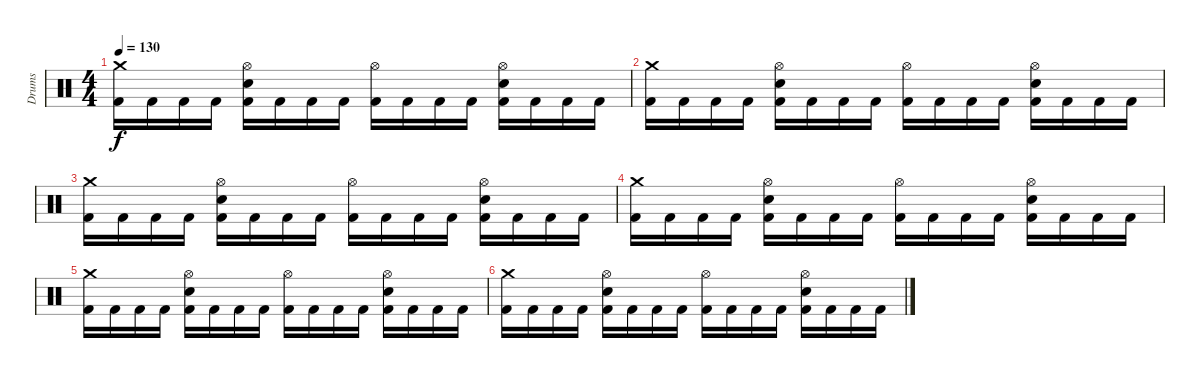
\track ("Drums" "Drums") {instrument percussion}
\staff {score}
\articulation defaults
\ts (4 4)
\tempo 130
\clef neutral
\ks c
("Kick (hit) 2" "Crash medium (hit)").16{dy f} "Kick (hit) 2".16 "Kick (hit) 2".16 "Kick (hit) 2".16 ("Kick (hit) 2" "Electric Snare (hit)" "Hi-Hat (open)").16 "Kick (hit) 2".16 "Kick (hit) 2".16 "Kick (hit) 2".16 ("Kick (hit) 2" "Hi-Hat (open)").16 "Kick (hit) 2".16 "Kick (hit) 2".16 "Kick (hit) 2".16 ("Kick (hit) 2" "Electric Snare (hit)" "Hi-Hat (open)").16 "Kick (hit) 2".16 "Kick (hit) 2".16 "Kick (hit) 2".16 |
("Kick (hit) 2" "Crash medium (hit)").16 "Kick (hit) 2".16 "Kick (hit) 2".16 "Kick (hit) 2".16 ("Kick (hit) 2" "Electric Snare (hit)" "Hi-Hat (open)").16 "Kick (hit) 2".16 "Kick (hit) 2".16 "Kick (hit) 2".16 ("Kick (hit) 2" "Hi-Hat (open)").16 "Kick (hit) 2".16 "Kick (hit) 2".16 "Kick (hit) 2".16 ("Kick (hit) 2" "Electric Snare (hit)" "Hi-Hat (open)").16 "Kick (hit) 2".16 "Kick (hit) 2".16 "Kick (hit) 2".16 |
("Kick (hit) 2" "Crash medium (hit)").16 "Kick (hit) 2".16 "Kick (hit) 2".16 "Kick (hit) 2".16 ("Kick (hit) 2" "Electric Snare (hit)" "Hi-Hat (open)").16 "Kick (hit) 2".16 "Kick (hit) 2".16 "Kick (hit) 2".16 ("Kick (hit) 2" "Hi-Hat (open)").16 "Kick (hit) 2".16 "Kick (hit) 2".16 "Kick (hit) 2".16 ("Kick (hit) 2" "Electric Snare (hit)" "Hi-Hat (open)").16 "Kick (hit) 2".16 "Kick (hit) 2".16 "Kick (hit) 2".16 |
("Kick (hit) 2" "Crash medium (hit)").16 "Kick (hit) 2".16 "Kick (hit) 2".16 "Kick (hit) 2".16 ("Kick (hit) 2" "Electric Snare (hit)" "Hi-Hat (open)").16 "Kick (hit) 2".16 "Kick (hit) 2".16 "Kick (hit) 2".16 ("Kick (hit) 2" "Hi-Hat (open)").16 "Kick (hit) 2".16 "Kick (hit) 2".16 "Kick (hit) 2".16 ("Kick (hit) 2" "Electric Snare (hit)" "Hi-Hat (open)").16 "Kick (hit) 2".16 "Kick (hit) 2".16 "Kick (hit) 2".16 |
("Kick (hit) 2" "Crash medium (hit)").16 "Kick (hit) 2".16 "Kick (hit) 2".16 "Kick (hit) 2".16 ("Kick (hit) 2" "Electric Snare (hit)" "Hi-Hat (open)").16 "Kick (hit) 2".16 "Kick (hit) 2".16 "Kick (hit) 2".16 ("Kick (hit) 2" "Hi-Hat (open)").16 "Kick (hit) 2".16 "Kick (hit) 2".16 "Kick (hit) 2".16 ("Kick (hit) 2" "Electric Snare (hit)" "Hi-Hat (open)").16 "Kick (hit) 2".16 "Kick (hit) 2".16 "Kick (hit) 2".16 |
("Kick (hit) 2" "Crash medium (hit)").16 "Kick (hit) 2".16 "Kick (hit) 2".16 "Kick (hit) 2".16 ("Kick (hit) 2" "Electric Snare (hit)" "Hi-Hat (open)").16 "Kick (hit) 2".16 "Kick (hit) 2".16 "Kick (hit) 2".16 ("Kick (hit) 2" "Hi-Hat (open)").16 "Kick (hit) 2".16 "Kick (hit) 2".16 "Kick (hit) 2".16 ("Kick (hit) 2" "Electric Snare (hit)" "Hi-Hat (open)").16 "Kick (hit) 2".16 "Kick (hit) 2".16 "Kick (hit) 2".16
